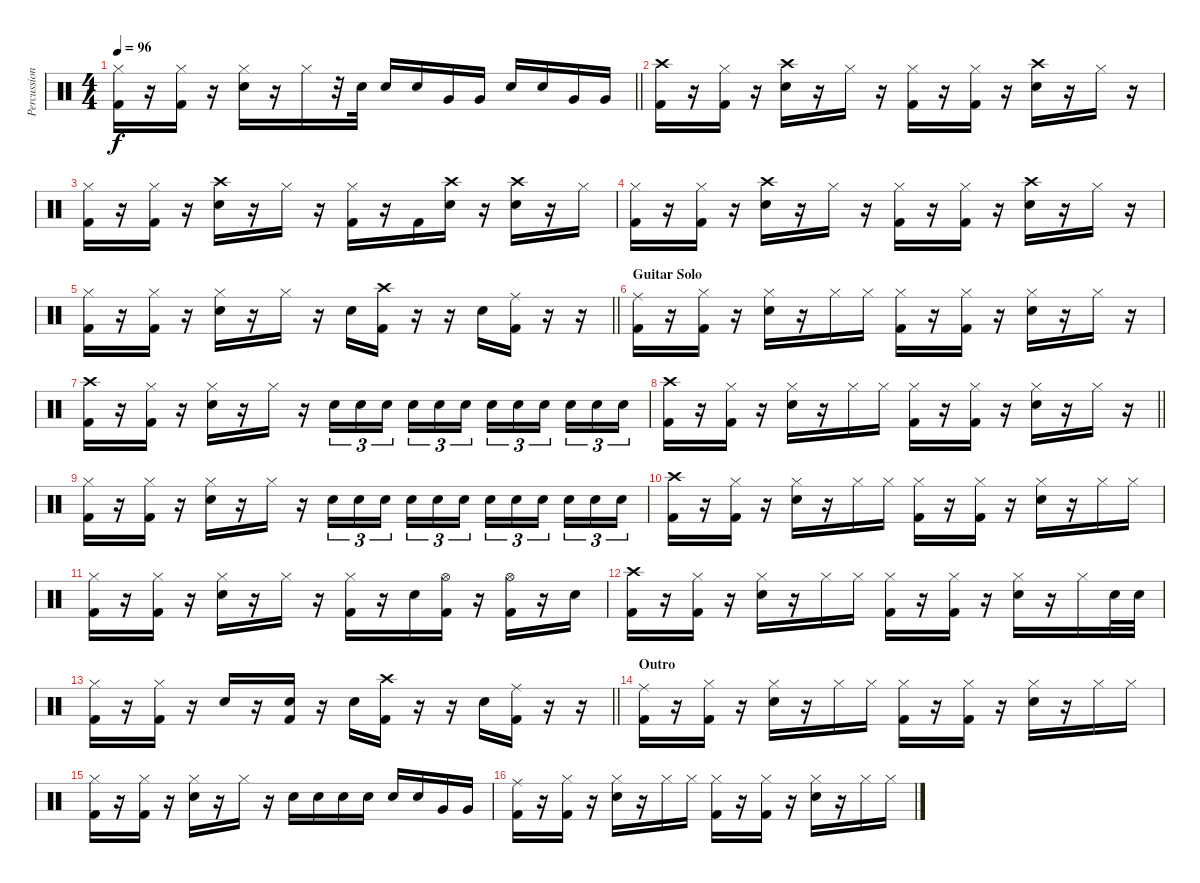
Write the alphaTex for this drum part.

\track ("Percussion" "Percussion") {instrument percussion}
\staff {score}
\articulation defaults
\ts (4 4)
\tempo 96
\clef neutral
\barLineRight lightlight
\ks c
("Hi-Hat (closed)" "Kick (hit) 2").16{dy f} r.16 ("Hi-Hat (closed)" "Kick (hit) 2").16 r.16 ("Hi-Hat (closed)" "Snare (hit) 2").16 r.16 "Hi-Hat (closed)".16 r.32 "Snare (hit) 2".32 "Snare (hit) 2".16 "Snare (hit) 2".16 "Very Low Tom (hit)".16 "Very Low Tom (hit)".16 "Snare (hit) 2".16 "Snare (hit) 2".16 "Very Low Tom (hit)".16 "Very Low Tom (hit)".16 |
("Crash high (hit)" "Kick (hit) 2").16 r.16 ("Hi-Hat (closed)" "Kick (hit) 2").16 r.16 ("Crash high (hit)" "Snare (hit) 2").16 r.16 "Hi-Hat (closed)".16 r.16 ("Hi-Hat (closed)" "Kick (hit) 2").16 r.16 ("Hi-Hat (closed)" "Kick (hit) 2").16 r.16 ("Crash high (hit)" "Snare (hit) 2").16 r.16 "Hi-Hat (closed)".16 r.16 |
("Hi-Hat (closed)" "Kick (hit) 2").16 r.16 ("Hi-Hat (closed)" "Kick (hit) 2").16 r.16 ("Crash high (hit)" "Snare (hit) 2").16 r.16 "Hi-Hat (closed)".16 r.16 ("Hi-Hat (closed)" "Kick (hit) 2").16 r.16 "Kick (hit) 2".16 ("Crash high (hit)" "Snare (hit) 2").16 r.16 ("Crash high (hit)" "Snare (hit) 2").16 r.16 "Hi-Hat (closed)".16 |
("Hi-Hat (closed)" "Kick (hit) 2").16 r.16 ("Hi-Hat (closed)" "Kick (hit) 2").16 r.16 ("Crash high (hit)" "Snare (hit) 2").16 r.16 "Hi-Hat (closed)".16 r.16 ("Hi-Hat (closed)" "Kick (hit) 2").16 r.16 ("Hi-Hat (closed)" "Kick (hit) 2").16 r.16 ("Crash high (hit)" "Snare (hit) 2").16 r.16 "Hi-Hat (closed)".16 r.16 |
\barLineRight lightlight
("Hi-Hat (closed)" "Kick (hit) 2").16 r.16 ("Hi-Hat (closed)" "Kick (hit) 2").16 r.16 ("Hi-Hat (closed)" "Snare (hit) 2").16 r.16 "Hi-Hat (closed)".16 r.16 "Snare (hit) 2".16 ("Crash high (hit)" "Kick (hit) 2").16 r.16 r.16 "Snare (hit) 2".16 ("Ride (middle)" "Kick (hit) 2").16 r.16 r.16 |
\section ("" "Guitar Solo")
("Ride (middle)" "Kick (hit) 2").16 r.16 ("Hi-Hat (closed)" "Kick (hit) 2").16 r.16 ("Hi-Hat (closed)" "Snare (hit) 2").16 r.16 "Hi-Hat (closed)".16 "Hi-Hat (closed)".16 ("Hi-Hat (closed)" "Kick (hit) 2").16 r.16 ("Hi-Hat (closed)" "Kick (hit) 2").16 r.16 ("Hi-Hat (closed)" "Snare (hit) 2").16 r.16 "Hi-Hat (closed)".16 r.16 |
("Crash high (hit)" "Kick (hit) 2").16 r.16 ("Hi-Hat (closed)" "Kick (hit) 2").16 r.16 ("Hi-Hat (closed)" "Snare (hit) 2").16 r.16 "Hi-Hat (closed)".16 r.16 "Snare (hit) 2".16{tu (3 2)} "Snare (hit) 2".16{tu (3 2)} "Snare (hit) 2".16{tu (3 2) beam splitsecondary} "Snare (hit) 2".16{tu (3 2)} "Snare (hit) 2".16{tu (3 2)} "Snare (hit) 2".16{tu (3 2)} "Snare (hit) 2".16{tu (3 2)} "Snare (hit) 2".16{tu (3 2)} "Snare (hit) 2".16{tu (3 2) beam splitsecondary} "Snare (hit) 2".16{tu (3 2)} "Snare (hit) 2".16{tu (3 2)} "Snare (hit) 2".16{tu (3 2)} |
\barLineRight lightlight
("Crash high (hit)" "Kick (hit) 2").16 r.16 ("Hi-Hat (closed)" "Kick (hit) 2").16 r.16 ("Hi-Hat (closed)" "Snare (hit) 2").16 r.16 "Hi-Hat (closed)".16 "Hi-Hat (closed)".16 ("Hi-Hat (closed)" "Kick (hit) 2").16 r.16 ("Hi-Hat (closed)" "Kick (hit) 2").16 r.16 ("Hi-Hat (closed)" "Snare (hit) 2").16 r.16 "Hi-Hat (closed)".16 r.16 |
("Hi-Hat (closed)" "Kick (hit) 2").16 r.16 ("Hi-Hat (closed)" "Kick (hit) 2").16 r.16 ("Hi-Hat (closed)" "Snare (hit) 2").16 r.16 "Hi-Hat (closed)".16 r.16 "Snare (hit) 2".16{tu (3 2)} "Snare (hit) 2".16{tu (3 2)} "Snare (hit) 2".16{tu (3 2) beam splitsecondary} "Snare (hit) 2".16{tu (3 2)} "Snare (hit) 2".16{tu (3 2)} "Snare (hit) 2".16{tu (3 2)} "Snare (hit) 2".16{tu (3 2)} "Snare (hit) 2".16{tu (3 2)} "Snare (hit) 2".16{tu (3 2) beam splitsecondary} "Snare (hit) 2".16{tu (3 2)} "Snare (hit) 2".16{tu (3 2)} "Snare (hit) 2".16{tu (3 2)} |
("Crash high (hit)" "Kick (hit) 2").16 r.16 ("Hi-Hat (closed)" "Kick (hit) 2").16 r.16 ("Hi-Hat (closed)" "Snare (hit) 2").16 r.16 "Hi-Hat (closed)".16 "Hi-Hat (closed)".16 ("Hi-Hat (closed)" "Kick (hit) 2").16 r.16 ("Hi-Hat (closed)" "Kick (hit) 2").16 r.16 ("Hi-Hat (closed)" "Snare (hit) 2").16 r.16 "Hi-Hat (closed)".16 "Hi-Hat (closed)".16 |
("Hi-Hat (closed)" "Kick (hit) 2").16 r.16 ("Hi-Hat (closed)" "Kick (hit) 2").16 r.16 ("Hi-Hat (closed)" "Snare (hit) 2").16 r.16 "Hi-Hat (closed)".16 r.16 ("Hi-Hat (closed)" "Kick (hit) 2").16 r.16 "Snare (hit) 2".16 ("Hi-Hat (open)" "Kick (hit) 2").16 r.16 ("Hi-Hat (open)" "Kick (hit) 2").16 r.16 "Snare (hit) 2".16 |
("Crash high (hit)" "Kick (hit) 2").16 r.16 ("Hi-Hat (closed)" "Kick (hit) 2").16 r.16 ("Hi-Hat (closed)" "Snare (hit) 2").16 r.16 "Hi-Hat (closed)".16 "Hi-Hat (closed)".16 ("Hi-Hat (closed)" "Kick (hit) 2").16 r.16 ("Hi-Hat (closed)" "Kick (hit) 2").16 r.16 ("Hi-Hat (closed)" "Snare (hit) 2").16 r.16 "Hi-Hat (closed)".16 "Snare (hit) 2".32 "Snare (hit) 2".32 |
\barLineRight lightlight
("Hi-Hat (closed)" "Kick (hit) 2").16 r.16 ("Hi-Hat (closed)" "Kick (hit) 2").16 r.16 "Snare (hit) 2".16 r.16 ("Snare (hit) 2" "Kick (hit) 2").16 r.16 "Snare (hit) 2".16 ("Crash high (hit)" "Kick (hit) 2").16 r.16 r.16 "Snare (hit) 2".16 ("Ride (middle)" "Kick (hit) 2").16 r.16 r.16 |
\section ("" "Outro")
("Ride (middle)" "Kick (hit) 2").16 r.16 ("Hi-Hat (closed)" "Kick (hit) 2").16 r.16 ("Hi-Hat (closed)" "Snare (hit) 2").16 r.16 "Hi-Hat (closed)".16 "Hi-Hat (closed)".16 ("Hi-Hat (closed)" "Kick (hit) 2").16 r.16 ("Hi-Hat (closed)" "Kick (hit) 2").16 r.16 ("Hi-Hat (closed)" "Snare (hit) 2").16 r.16 "Hi-Hat (closed)".16 "Hi-Hat (closed)".16 |
("Hi-Hat (closed)" "Kick (hit) 2").16 r.16 ("Hi-Hat (closed)" "Kick (hit) 2").16 r.16 ("Hi-Hat (closed)" "Snare (hit) 2").16 r.16 "Hi-Hat (closed)".16 r.16 "Snare (hit) 2".16 "Snare (hit) 2".16 "Snare (hit) 2".16 "Snare (hit) 2".16 "Snare (hit) 2".16 "Snare (hit) 2".16 "Very Low Tom (hit)".16 "Very Low Tom (hit)".16 |
("Ride (middle)" "Kick (hit) 2").16 r.16 ("Hi-Hat (closed)" "Kick (hit) 2").16 r.16 ("Hi-Hat (closed)" "Snare (hit) 2").16 r.16 "Hi-Hat (closed)".16 "Hi-Hat (closed)".16 ("Hi-Hat (closed)" "Kick (hit) 2").16 r.16 ("Hi-Hat (closed)" "Kick (hit) 2").16 r.16 ("Hi-Hat (closed)" "Snare (hit) 2").16 r.16 "Hi-Hat (closed)".16 "Hi-Hat (closed)".16
